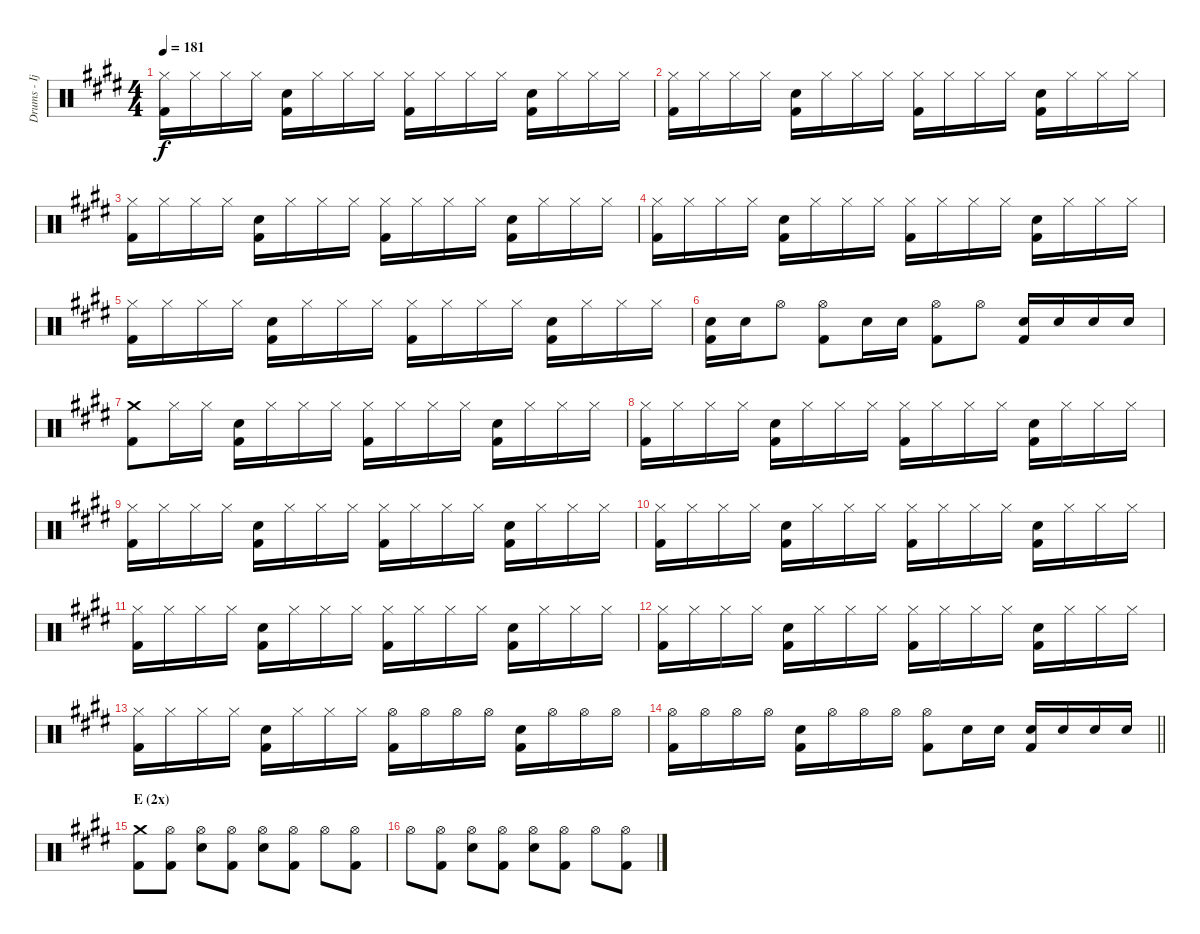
\track ("Drums - Ijichi" "Drums - Ij") {instrument percussion}
\staff {score}
\articulation defaults
\ts (4 4)
\tempo 181
\clef neutral
\ks e
("Hi-Hat (closed)" "Kick (hit) 2").16{dy f} "Hi-Hat (closed)".16 "Hi-Hat (closed)".16 "Hi-Hat (closed)".16 ("Electric Snare (hit)" "Kick (hit) 2").16 "Hi-Hat (closed)".16 "Hi-Hat (closed)".16 "Hi-Hat (closed)".16 ("Hi-Hat (closed)" "Kick (hit) 2").16 "Hi-Hat (closed)".16 "Hi-Hat (closed)".16 "Hi-Hat (closed)".16 ("Electric Snare (hit)" "Kick (hit) 2").16 "Hi-Hat (closed)".16 "Hi-Hat (closed)".16 "Hi-Hat (closed)".16 |
("Hi-Hat (closed)" "Kick (hit) 2").16 "Hi-Hat (closed)".16 "Hi-Hat (closed)".16 "Hi-Hat (closed)".16 ("Electric Snare (hit)" "Kick (hit) 2").16 "Hi-Hat (closed)".16 "Hi-Hat (closed)".16 "Hi-Hat (closed)".16 ("Hi-Hat (closed)" "Kick (hit) 2").16 "Hi-Hat (closed)".16 "Hi-Hat (closed)".16 "Hi-Hat (closed)".16 ("Electric Snare (hit)" "Kick (hit) 2").16 "Hi-Hat (closed)".16 "Hi-Hat (closed)".16 "Hi-Hat (closed)".16 |
("Hi-Hat (closed)" "Kick (hit) 2").16 "Hi-Hat (closed)".16 "Hi-Hat (closed)".16 "Hi-Hat (closed)".16 ("Electric Snare (hit)" "Kick (hit) 2").16 "Hi-Hat (closed)".16 "Hi-Hat (closed)".16 "Hi-Hat (closed)".16 ("Hi-Hat (closed)" "Kick (hit) 2").16 "Hi-Hat (closed)".16 "Hi-Hat (closed)".16 "Hi-Hat (closed)".16 ("Electric Snare (hit)" "Kick (hit) 2").16 "Hi-Hat (closed)".16 "Hi-Hat (closed)".16 "Hi-Hat (closed)".16 |
("Hi-Hat (closed)" "Kick (hit) 2").16 "Hi-Hat (closed)".16 "Hi-Hat (closed)".16 "Hi-Hat (closed)".16 ("Electric Snare (hit)" "Kick (hit) 2").16 "Hi-Hat (closed)".16 "Hi-Hat (closed)".16 "Hi-Hat (closed)".16 ("Hi-Hat (closed)" "Kick (hit) 2").16 "Hi-Hat (closed)".16 "Hi-Hat (closed)".16 "Hi-Hat (closed)".16 ("Electric Snare (hit)" "Kick (hit) 2").16 "Hi-Hat (closed)".16 "Hi-Hat (closed)".16 "Hi-Hat (closed)".16 |
("Hi-Hat (closed)" "Kick (hit) 2").16 "Hi-Hat (closed)".16 "Hi-Hat (closed)".16 "Hi-Hat (closed)".16 ("Electric Snare (hit)" "Kick (hit) 2").16 "Hi-Hat (closed)".16 "Hi-Hat (closed)".16 "Hi-Hat (closed)".16 ("Hi-Hat (closed)" "Kick (hit) 2").16 "Hi-Hat (closed)".16 "Hi-Hat (closed)".16 "Hi-Hat (closed)".16 ("Electric Snare (hit)" "Kick (hit) 2").16 "Hi-Hat (closed)".16 "Hi-Hat (closed)".16 "Hi-Hat (closed)".16 |
("Electric Snare (hit)" "Kick (hit) 2").16 "Electric Snare (hit)".16 "Hi-Hat (open)".8 ("Hi-Hat (open)" "Kick (hit) 2").8 "Electric Snare (hit)".16 "Electric Snare (hit)".16 ("Hi-Hat (open)" "Kick (hit) 2").8 "Hi-Hat (open)".8 ("Electric Snare (hit)" "Kick (hit) 2").16 "Electric Snare (hit)".16 "Electric Snare (hit)".16 "Electric Snare (hit)".16 |
("Crash medium (hit)" "Kick (hit) 2").8 "Hi-Hat (closed)".16 "Hi-Hat (closed)".16 ("Electric Snare (hit)" "Kick (hit) 2").16 "Hi-Hat (closed)".16 "Hi-Hat (closed)".16 "Hi-Hat (closed)".16 ("Hi-Hat (closed)" "Kick (hit) 2").16 "Hi-Hat (closed)".16 "Hi-Hat (closed)".16 "Hi-Hat (closed)".16 ("Electric Snare (hit)" "Kick (hit) 2").16 "Hi-Hat (closed)".16 "Hi-Hat (closed)".16 "Hi-Hat (closed)".16 |
("Hi-Hat (closed)" "Kick (hit) 2").16 "Hi-Hat (closed)".16 "Hi-Hat (closed)".16 "Hi-Hat (closed)".16 ("Electric Snare (hit)" "Kick (hit) 2").16 "Hi-Hat (closed)".16 "Hi-Hat (closed)".16 "Hi-Hat (closed)".16 ("Hi-Hat (closed)" "Kick (hit) 2").16 "Hi-Hat (closed)".16 "Hi-Hat (closed)".16 "Hi-Hat (closed)".16 ("Electric Snare (hit)" "Kick (hit) 2").16 "Hi-Hat (closed)".16 "Hi-Hat (closed)".16 "Hi-Hat (closed)".16 |
("Hi-Hat (closed)" "Kick (hit) 2").16 "Hi-Hat (closed)".16 "Hi-Hat (closed)".16 "Hi-Hat (closed)".16 ("Electric Snare (hit)" "Kick (hit) 2").16 "Hi-Hat (closed)".16 "Hi-Hat (closed)".16 "Hi-Hat (closed)".16 ("Hi-Hat (closed)" "Kick (hit) 2").16 "Hi-Hat (closed)".16 "Hi-Hat (closed)".16 "Hi-Hat (closed)".16 ("Electric Snare (hit)" "Kick (hit) 2").16 "Hi-Hat (closed)".16 "Hi-Hat (closed)".16 "Hi-Hat (closed)".16 |
("Hi-Hat (closed)" "Kick (hit) 2").16 "Hi-Hat (closed)".16 "Hi-Hat (closed)".16 "Hi-Hat (closed)".16 ("Electric Snare (hit)" "Kick (hit) 2").16 "Hi-Hat (closed)".16 "Hi-Hat (closed)".16 "Hi-Hat (closed)".16 ("Hi-Hat (closed)" "Kick (hit) 2").16 "Hi-Hat (closed)".16 "Hi-Hat (closed)".16 "Hi-Hat (closed)".16 ("Electric Snare (hit)" "Kick (hit) 2").16 "Hi-Hat (closed)".16 "Hi-Hat (closed)".16 "Hi-Hat (closed)".16 |
("Hi-Hat (closed)" "Kick (hit) 2").16 "Hi-Hat (closed)".16 "Hi-Hat (closed)".16 "Hi-Hat (closed)".16 ("Electric Snare (hit)" "Kick (hit) 2").16 "Hi-Hat (closed)".16 "Hi-Hat (closed)".16 "Hi-Hat (closed)".16 ("Hi-Hat (closed)" "Kick (hit) 2").16 "Hi-Hat (closed)".16 "Hi-Hat (closed)".16 "Hi-Hat (closed)".16 ("Electric Snare (hit)" "Kick (hit) 2").16 "Hi-Hat (closed)".16 "Hi-Hat (closed)".16 "Hi-Hat (closed)".16 |
("Hi-Hat (closed)" "Kick (hit) 2").16 "Hi-Hat (closed)".16 "Hi-Hat (closed)".16 "Hi-Hat (closed)".16 ("Electric Snare (hit)" "Kick (hit) 2").16 "Hi-Hat (closed)".16 "Hi-Hat (closed)".16 "Hi-Hat (closed)".16 ("Hi-Hat (closed)" "Kick (hit) 2").16 "Hi-Hat (closed)".16 "Hi-Hat (closed)".16 "Hi-Hat (closed)".16 ("Electric Snare (hit)" "Kick (hit) 2").16 "Hi-Hat (closed)".16 "Hi-Hat (closed)".16 "Hi-Hat (closed)".16 |
("Hi-Hat (closed)" "Kick (hit) 2").16 "Hi-Hat (closed)".16 "Hi-Hat (closed)".16 "Hi-Hat (closed)".16 ("Electric Snare (hit)" "Kick (hit) 2").16 "Hi-Hat (closed)".16 "Hi-Hat (closed)".16 "Hi-Hat (closed)".16 ("Hi-Hat (open)" "Kick (hit) 2").16 "Hi-Hat (open)".16 "Hi-Hat (open)".16 "Hi-Hat (open)".16 ("Electric Snare (hit)" "Kick (hit) 2").16 "Hi-Hat (open)".16 "Hi-Hat (open)".16 "Hi-Hat (open)".16 |
\barLineRight lightlight
("Hi-Hat (open)" "Kick (hit) 2").16 "Hi-Hat (open)".16 "Hi-Hat (open)".16 "Hi-Hat (open)".16 ("Electric Snare (hit)" "Kick (hit) 2").16 "Hi-Hat (open)".16 "Hi-Hat (open)".16 "Hi-Hat (open)".16 ("Hi-Hat (open)" "Kick (hit) 2").8 "Electric Snare (hit)".16 "Electric Snare (hit)".16 ("Electric Snare (hit)" "Kick (hit) 2").16 "Electric Snare (hit)".16 "Electric Snare (hit)".16 "Electric Snare (hit)".16 |
\section ("" "E (2x)")
("Crash medium (hit)" "Kick (hit) 2").8 ("Hi-Hat (open)" "Kick (hit) 2").8 ("Hi-Hat (open)" "Electric Snare (hit)").8 ("Hi-Hat (open)" "Kick (hit) 2").8 ("Hi-Hat (open)" "Electric Snare (hit)").8 ("Hi-Hat (open)" "Kick (hit) 2").8 "Hi-Hat (open)".8 ("Hi-Hat (open)" "Kick (hit) 2").8 |
"Hi-Hat (open)".8 ("Hi-Hat (open)" "Kick (hit) 2").8 ("Hi-Hat (open)" "Electric Snare (hit)").8 ("Hi-Hat (open)" "Kick (hit) 2").8 ("Hi-Hat (open)" "Electric Snare (hit)").8 ("Hi-Hat (open)" "Kick (hit) 2").8 "Hi-Hat (open)".8 ("Hi-Hat (open)" "Kick (hit) 2").8
